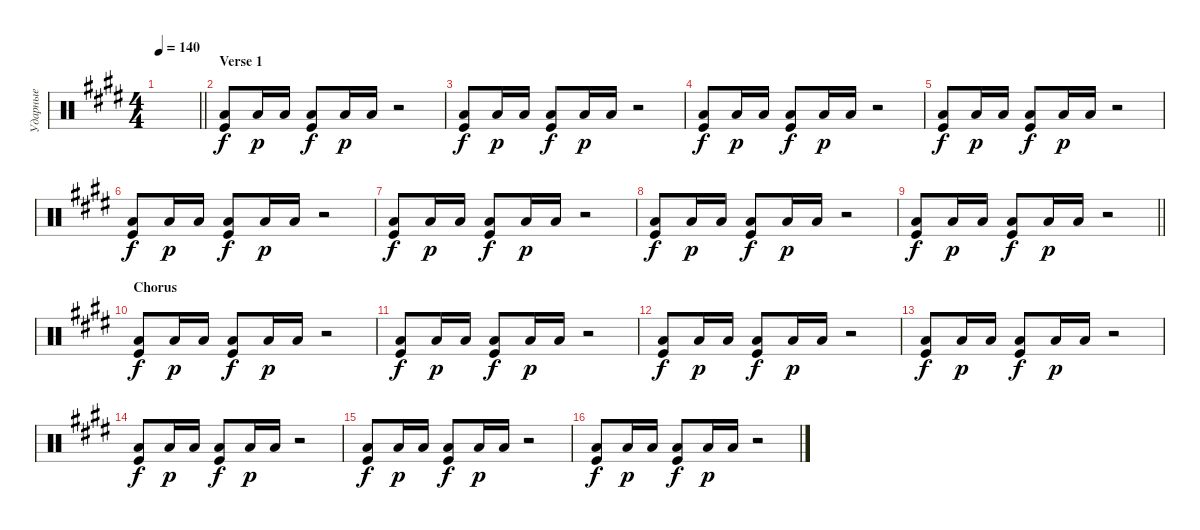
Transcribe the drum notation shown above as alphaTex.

\track ("Ударные" "Ударные") {instrument percussion}
\staff {score}
\articulation defaults
\ts (4 4)
\tempo 140
\clef neutral
\barLineRight lightlight
\ks c#minor
|
\section ("" "Verse 1")
("Kick (hit)" "Low Floor Tom (hit)").8 "Low Floor Tom (hit)".16{dy p} "Low Floor Tom (hit)".16 ("Kick (hit)" "Low Floor Tom (hit)").8{dy f} "Low Floor Tom (hit)".16{dy p} "Low Floor Tom (hit)".16 r.2 |
("Kick (hit)" "Low Floor Tom (hit)").8{dy f} "Low Floor Tom (hit)".16{dy p} "Low Floor Tom (hit)".16 ("Kick (hit)" "Low Floor Tom (hit)").8{dy f} "Low Floor Tom (hit)".16{dy p} "Low Floor Tom (hit)".16 r.2 |
("Kick (hit)" "Low Floor Tom (hit)").8{dy f} "Low Floor Tom (hit)".16{dy p} "Low Floor Tom (hit)".16 ("Kick (hit)" "Low Floor Tom (hit)").8{dy f} "Low Floor Tom (hit)".16{dy p} "Low Floor Tom (hit)".16 r.2 |
("Kick (hit)" "Low Floor Tom (hit)").8{dy f} "Low Floor Tom (hit)".16{dy p} "Low Floor Tom (hit)".16 ("Kick (hit)" "Low Floor Tom (hit)").8{dy f} "Low Floor Tom (hit)".16{dy p} "Low Floor Tom (hit)".16 r.2 |
("Kick (hit)" "Low Floor Tom (hit)").8{dy f} "Low Floor Tom (hit)".16{dy p} "Low Floor Tom (hit)".16 ("Kick (hit)" "Low Floor Tom (hit)").8{dy f} "Low Floor Tom (hit)".16{dy p} "Low Floor Tom (hit)".16 r.2 |
("Kick (hit)" "Low Floor Tom (hit)").8{dy f} "Low Floor Tom (hit)".16{dy p} "Low Floor Tom (hit)".16 ("Kick (hit)" "Low Floor Tom (hit)").8{dy f} "Low Floor Tom (hit)".16{dy p} "Low Floor Tom (hit)".16 r.2 |
("Kick (hit)" "Low Floor Tom (hit)").8{dy f} "Low Floor Tom (hit)".16{dy p} "Low Floor Tom (hit)".16 ("Kick (hit)" "Low Floor Tom (hit)").8{dy f} "Low Floor Tom (hit)".16{dy p} "Low Floor Tom (hit)".16 r.2 |
\barLineRight lightlight
("Kick (hit)" "Low Floor Tom (hit)").8{dy f} "Low Floor Tom (hit)".16{dy p} "Low Floor Tom (hit)".16 ("Kick (hit)" "Low Floor Tom (hit)").8{dy f} "Low Floor Tom (hit)".16{dy p} "Low Floor Tom (hit)".16 r.2 |
\section ("" "Chorus")
("Kick (hit)" "Low Floor Tom (hit)").8{dy f} "Low Floor Tom (hit)".16{dy p} "Low Floor Tom (hit)".16 ("Kick (hit)" "Low Floor Tom (hit)").8{dy f} "Low Floor Tom (hit)".16{dy p} "Low Floor Tom (hit)".16 r.2 |
("Kick (hit)" "Low Floor Tom (hit)").8{dy f} "Low Floor Tom (hit)".16{dy p} "Low Floor Tom (hit)".16 ("Kick (hit)" "Low Floor Tom (hit)").8{dy f} "Low Floor Tom (hit)".16{dy p} "Low Floor Tom (hit)".16 r.2 |
("Kick (hit)" "Low Floor Tom (hit)").8{dy f} "Low Floor Tom (hit)".16{dy p} "Low Floor Tom (hit)".16 ("Kick (hit)" "Low Floor Tom (hit)").8{dy f} "Low Floor Tom (hit)".16{dy p} "Low Floor Tom (hit)".16 r.2 |
("Kick (hit)" "Low Floor Tom (hit)").8{dy f} "Low Floor Tom (hit)".16{dy p} "Low Floor Tom (hit)".16 ("Kick (hit)" "Low Floor Tom (hit)").8{dy f} "Low Floor Tom (hit)".16{dy p} "Low Floor Tom (hit)".16 r.2 |
("Kick (hit)" "Low Floor Tom (hit)").8{dy f} "Low Floor Tom (hit)".16{dy p} "Low Floor Tom (hit)".16 ("Kick (hit)" "Low Floor Tom (hit)").8{dy f} "Low Floor Tom (hit)".16{dy p} "Low Floor Tom (hit)".16 r.2 |
("Kick (hit)" "Low Floor Tom (hit)").8{dy f} "Low Floor Tom (hit)".16{dy p} "Low Floor Tom (hit)".16 ("Kick (hit)" "Low Floor Tom (hit)").8{dy f} "Low Floor Tom (hit)".16{dy p} "Low Floor Tom (hit)".16 r.2 |
("Kick (hit)" "Low Floor Tom (hit)").8{dy f} "Low Floor Tom (hit)".16{dy p} "Low Floor Tom (hit)".16 ("Kick (hit)" "Low Floor Tom (hit)").8{dy f} "Low Floor Tom (hit)".16{dy p} "Low Floor Tom (hit)".16 r.2
